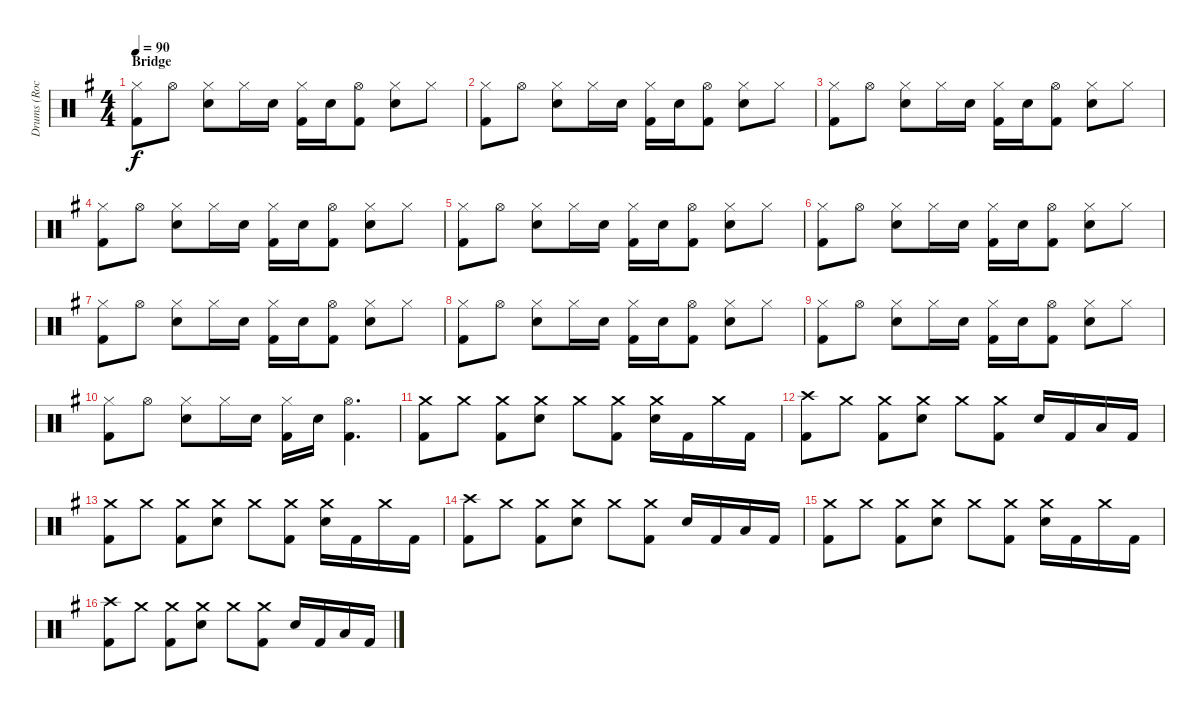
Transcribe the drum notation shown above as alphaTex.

\track ("Drums (Rocky Grey)" "Drums (Roc") {instrument percussion}
\staff {score}
\articulation defaults
\ts (4 4)
\section ("" "Bridge")
\tempo 90
\clef neutral
\ks g
("Hi-Hat (closed)" "Kick (hit) 2").8{dy f} "Hi-Hat (open)".8 ("Hi-Hat (closed)" "Snare (hit) 2").8 "Hi-Hat (closed)".16 "Snare (hit) 2".16 ("Hi-Hat (closed)" "Kick (hit) 2").16 "Snare (hit) 2".16 ("Hi-Hat (open)" "Kick (hit) 2").8 ("Hi-Hat (closed)" "Snare (hit) 2").8 "Hi-Hat (closed)".8 |
("Hi-Hat (closed)" "Kick (hit) 2").8 "Hi-Hat (open)".8 ("Hi-Hat (closed)" "Snare (hit) 2").8 "Hi-Hat (closed)".16 "Snare (hit) 2".16 ("Hi-Hat (closed)" "Kick (hit) 2").16 "Snare (hit) 2".16 ("Hi-Hat (open)" "Kick (hit) 2").8 ("Hi-Hat (closed)" "Snare (hit) 2").8 "Hi-Hat (closed)".8 |
("Hi-Hat (closed)" "Kick (hit) 2").8 "Hi-Hat (open)".8 ("Hi-Hat (closed)" "Snare (hit) 2").8 "Hi-Hat (closed)".16 "Snare (hit) 2".16 ("Hi-Hat (closed)" "Kick (hit) 2").16 "Snare (hit) 2".16 ("Hi-Hat (open)" "Kick (hit) 2").8 ("Hi-Hat (closed)" "Snare (hit) 2").8 "Hi-Hat (closed)".8 |
("Hi-Hat (closed)" "Kick (hit) 2").8 "Hi-Hat (open)".8 ("Hi-Hat (closed)" "Snare (hit) 2").8 "Hi-Hat (closed)".16 "Snare (hit) 2".16 ("Hi-Hat (closed)" "Kick (hit) 2").16 "Snare (hit) 2".16 ("Hi-Hat (open)" "Kick (hit) 2").8 ("Hi-Hat (closed)" "Snare (hit) 2").8 "Hi-Hat (closed)".8 |
("Hi-Hat (closed)" "Kick (hit) 2").8 "Hi-Hat (open)".8 ("Hi-Hat (closed)" "Snare (hit) 2").8 "Hi-Hat (closed)".16 "Snare (hit) 2".16 ("Hi-Hat (closed)" "Kick (hit) 2").16 "Snare (hit) 2".16 ("Hi-Hat (open)" "Kick (hit) 2").8 ("Hi-Hat (closed)" "Snare (hit) 2").8 "Hi-Hat (closed)".8 |
("Hi-Hat (closed)" "Kick (hit) 2").8 "Hi-Hat (open)".8 ("Hi-Hat (closed)" "Snare (hit) 2").8 "Hi-Hat (closed)".16 "Snare (hit) 2".16 ("Hi-Hat (closed)" "Kick (hit) 2").16 "Snare (hit) 2".16 ("Hi-Hat (open)" "Kick (hit) 2").8 ("Hi-Hat (closed)" "Snare (hit) 2").8 "Hi-Hat (closed)".8 |
("Hi-Hat (closed)" "Kick (hit) 2").8 "Hi-Hat (open)".8 ("Hi-Hat (closed)" "Snare (hit) 2").8 "Hi-Hat (closed)".16 "Snare (hit) 2".16 ("Hi-Hat (closed)" "Kick (hit) 2").16 "Snare (hit) 2".16 ("Hi-Hat (open)" "Kick (hit) 2").8 ("Hi-Hat (closed)" "Snare (hit) 2").8 "Hi-Hat (closed)".8 |
("Hi-Hat (closed)" "Kick (hit) 2").8 "Hi-Hat (open)".8 ("Hi-Hat (closed)" "Snare (hit) 2").8 "Hi-Hat (closed)".16 "Snare (hit) 2".16 ("Hi-Hat (closed)" "Kick (hit) 2").16 "Snare (hit) 2".16 ("Hi-Hat (open)" "Kick (hit) 2").8 ("Hi-Hat (closed)" "Snare (hit) 2").8 "Hi-Hat (closed)".8 |
("Hi-Hat (closed)" "Kick (hit) 2").8 "Hi-Hat (open)".8 ("Hi-Hat (closed)" "Snare (hit) 2").8 "Hi-Hat (closed)".16 "Snare (hit) 2".16 ("Hi-Hat (closed)" "Kick (hit) 2").16 "Snare (hit) 2".16 ("Hi-Hat (open)" "Kick (hit) 2").8 ("Hi-Hat (closed)" "Snare (hit) 2").8 "Hi-Hat (closed)".8 |
("Hi-Hat (closed)" "Kick (hit) 2").8 "Hi-Hat (open)".8 ("Hi-Hat (closed)" "Snare (hit) 2").8 "Hi-Hat (closed)".16 "Snare (hit) 2".16 ("Hi-Hat (closed)" "Kick (hit) 2").16 "Snare (hit) 2".16 ("Hi-Hat (open)" "Kick (hit) 2").4{d} |
("Crash medium (hit)" "Kick (hit) 2").8 "Crash medium (hit)".8 ("Crash medium (hit)" "Kick (hit) 2").8 ("Crash medium (hit)" "Snare (hit) 2").8 "Crash medium (hit)".8 ("Crash medium (hit)" "Kick (hit) 2").8 ("Crash medium (hit)" "Snare (hit) 2").16 "Kick (hit) 2".16 "Crash medium (hit)".16 "Kick (hit) 2".16 |
("Crash high (hit)" "Kick (hit) 2").8 "Crash medium (hit)".8 ("Crash medium (hit)" "Kick (hit) 2").8 ("Crash medium (hit)" "Snare (hit) 2").8 "Crash medium (hit)".8 ("Crash medium (hit)" "Kick (hit) 2").8 "Snare (hit) 2".16 "Kick (hit) 2".16 "Low Floor Tom (hit)".16 "Kick (hit) 2".16 |
("Crash medium (hit)" "Kick (hit) 2").8 "Crash medium (hit)".8 ("Crash medium (hit)" "Kick (hit) 2").8 ("Crash medium (hit)" "Snare (hit) 2").8 "Crash medium (hit)".8 ("Crash medium (hit)" "Kick (hit) 2").8 ("Crash medium (hit)" "Snare (hit) 2").16 "Kick (hit) 2".16 "Crash medium (hit)".16 "Kick (hit) 2".16 |
("Crash high (hit)" "Kick (hit) 2").8 "Crash medium (hit)".8 ("Crash medium (hit)" "Kick (hit) 2").8 ("Crash medium (hit)" "Snare (hit) 2").8 "Crash medium (hit)".8 ("Crash medium (hit)" "Kick (hit) 2").8 "Snare (hit) 2".16 "Kick (hit) 2".16 "Low Floor Tom (hit)".16 "Kick (hit) 2".16 |
("Crash medium (hit)" "Kick (hit) 2").8 "Crash medium (hit)".8 ("Crash medium (hit)" "Kick (hit) 2").8 ("Crash medium (hit)" "Snare (hit) 2").8 "Crash medium (hit)".8 ("Crash medium (hit)" "Kick (hit) 2").8 ("Crash medium (hit)" "Snare (hit) 2").16 "Kick (hit) 2".16 "Crash medium (hit)".16 "Kick (hit) 2".16 |
("Crash high (hit)" "Kick (hit) 2").8 "Crash medium (hit)".8 ("Crash medium (hit)" "Kick (hit) 2").8 ("Crash medium (hit)" "Snare (hit) 2").8 "Crash medium (hit)".8 ("Crash medium (hit)" "Kick (hit) 2").8 "Snare (hit) 2".16 "Kick (hit) 2".16 "Low Floor Tom (hit)".16 "Kick (hit) 2".16
